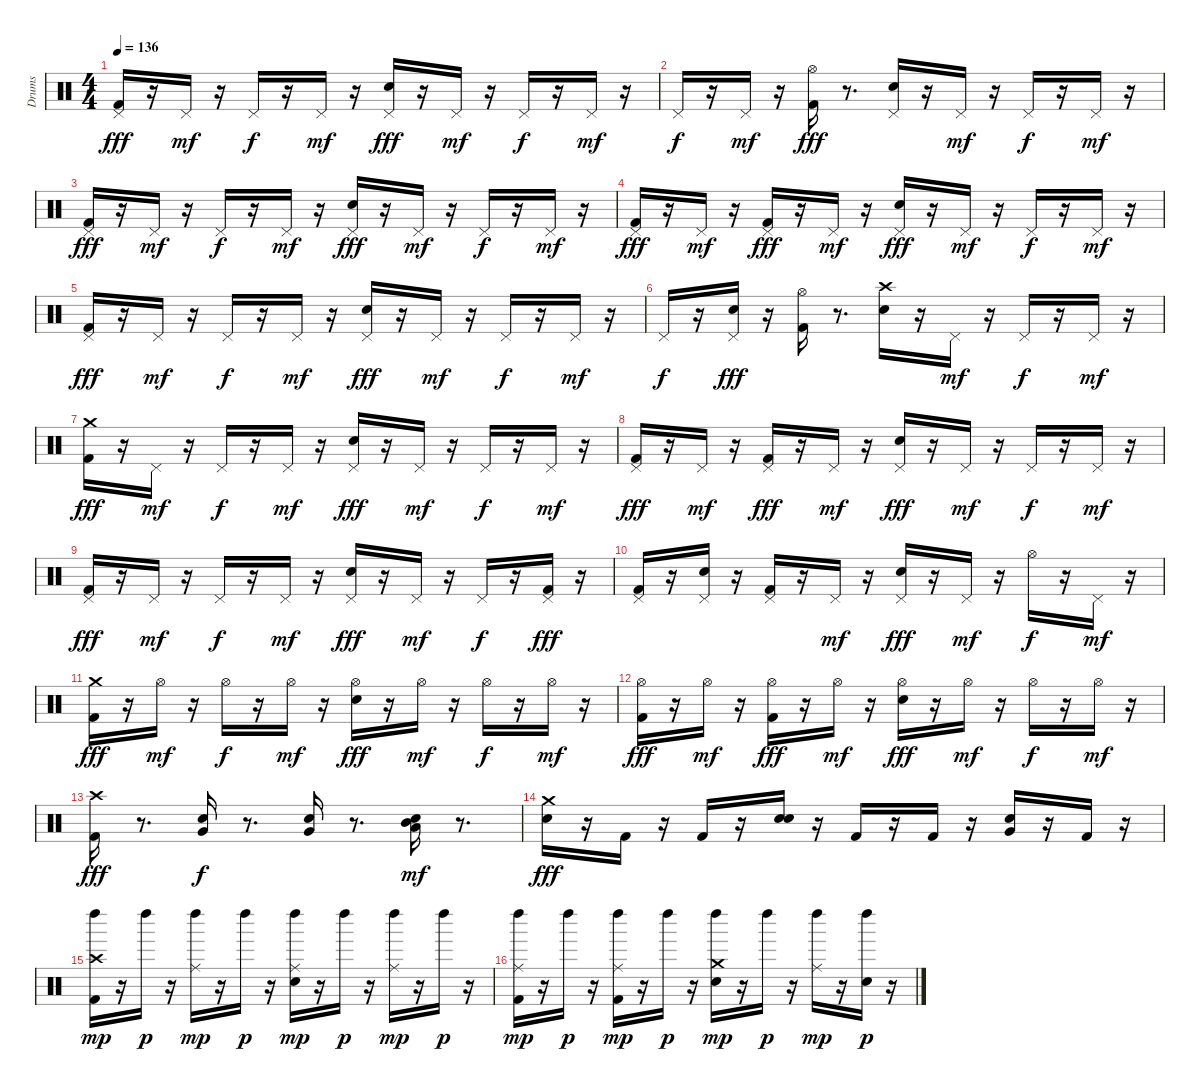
\track ("Drums" "Drums") {instrument percussion}
\staff {score}
\articulation defaults
\ts (4 4)
\tempo 136
\clef neutral
\ks c
("Kick (hit) 2" "Pedal Hi-Hat (hit)").16{dy fff} r.16 "Pedal Hi-Hat (hit)".16{dy mf} r.16 "Pedal Hi-Hat (hit)".16{dy f} r.16 "Pedal Hi-Hat (hit)".16{dy mf} r.16 ("Electric Snare (hit)" "Pedal Hi-Hat (hit)").16{dy fff} r.16 "Pedal Hi-Hat (hit)".16{dy mf} r.16 "Pedal Hi-Hat (hit)".16{dy f} r.16 "Pedal Hi-Hat (hit)".16{dy mf} r.16 |
"Pedal Hi-Hat (hit)".16{dy f} r.16 "Pedal Hi-Hat (hit)".16{dy mf} r.16 ("Kick (hit) 2" "Hi-Hat (open)").16{dy fff} r.8{d} ("Electric Snare (hit)" "Pedal Hi-Hat (hit)").16 r.16 "Pedal Hi-Hat (hit)".16{dy mf} r.16 "Pedal Hi-Hat (hit)".16{dy f} r.16 "Pedal Hi-Hat (hit)".16{dy mf} r.16 |
("Kick (hit) 2" "Pedal Hi-Hat (hit)").16{dy fff} r.16 "Pedal Hi-Hat (hit)".16{dy mf} r.16 "Pedal Hi-Hat (hit)".16{dy f} r.16 "Pedal Hi-Hat (hit)".16{dy mf} r.16 ("Electric Snare (hit)" "Pedal Hi-Hat (hit)").16{dy fff} r.16 "Pedal Hi-Hat (hit)".16{dy mf} r.16 "Pedal Hi-Hat (hit)".16{dy f} r.16 "Pedal Hi-Hat (hit)".16{dy mf} r.16 |
("Kick (hit) 2" "Pedal Hi-Hat (hit)").16{dy fff} r.16 "Pedal Hi-Hat (hit)".16{dy mf} r.16 ("Pedal Hi-Hat (hit)" "Kick (hit) 2").16{dy fff} r.16 "Pedal Hi-Hat (hit)".16{dy mf} r.16 ("Electric Snare (hit)" "Pedal Hi-Hat (hit)").16{dy fff} r.16 "Pedal Hi-Hat (hit)".16{dy mf} r.16 "Pedal Hi-Hat (hit)".16{dy f} r.16 "Pedal Hi-Hat (hit)".16{dy mf} r.16 |
("Kick (hit) 2" "Pedal Hi-Hat (hit)").16{dy fff} r.16 "Pedal Hi-Hat (hit)".16{dy mf} r.16 "Pedal Hi-Hat (hit)".16{dy f} r.16 "Pedal Hi-Hat (hit)".16{dy mf} r.16 ("Electric Snare (hit)" "Pedal Hi-Hat (hit)").16{dy fff} r.16 "Pedal Hi-Hat (hit)".16{dy mf} r.16 "Pedal Hi-Hat (hit)".16{dy f} r.16 "Pedal Hi-Hat (hit)".16{dy mf} r.16 |
"Pedal Hi-Hat (hit)".16{dy f} r.16 ("Pedal Hi-Hat (hit)" "Electric Snare (hit)").16{dy fff} r.16 ("Kick (hit) 2" "Hi-Hat (open)").16 r.8{d} ("Electric Snare (hit)" "Crash high (hit)").16 r.16 "Pedal Hi-Hat (hit)".16{dy mf} r.16 "Pedal Hi-Hat (hit)".16{dy f} r.16 "Pedal Hi-Hat (hit)".16{dy mf} r.16 |
("Kick (hit) 2" "Crash medium (hit)").16{dy fff} r.16 "Pedal Hi-Hat (hit)".16{dy mf} r.16 "Pedal Hi-Hat (hit)".16{dy f} r.16 "Pedal Hi-Hat (hit)".16{dy mf} r.16 ("Electric Snare (hit)" "Pedal Hi-Hat (hit)").16{dy fff} r.16 "Pedal Hi-Hat (hit)".16{dy mf} r.16 "Pedal Hi-Hat (hit)".16{dy f} r.16 "Pedal Hi-Hat (hit)".16{dy mf} r.16 |
("Kick (hit) 2" "Pedal Hi-Hat (hit)").16{dy fff} r.16 "Pedal Hi-Hat (hit)".16{dy mf} r.16 ("Pedal Hi-Hat (hit)" "Kick (hit) 2").16{dy fff} r.16 "Pedal Hi-Hat (hit)".16{dy mf} r.16 ("Electric Snare (hit)" "Pedal Hi-Hat (hit)").16{dy fff} r.16 "Pedal Hi-Hat (hit)".16{dy mf} r.16 "Pedal Hi-Hat (hit)".16{dy f} r.16 "Pedal Hi-Hat (hit)".16{dy mf} r.16 |
("Kick (hit) 2" "Pedal Hi-Hat (hit)").16{dy fff} r.16 "Pedal Hi-Hat (hit)".16{dy mf} r.16 "Pedal Hi-Hat (hit)".16{dy f} r.16 "Pedal Hi-Hat (hit)".16{dy mf} r.16 ("Electric Snare (hit)" "Pedal Hi-Hat (hit)").16{dy fff} r.16 "Pedal Hi-Hat (hit)".16{dy mf} r.16 "Pedal Hi-Hat (hit)".16{dy f} r.16 ("Pedal Hi-Hat (hit)" "Kick (hit) 2").16{dy fff} r.16 |
("Pedal Hi-Hat (hit)" "Kick (hit) 2").16 r.16 ("Pedal Hi-Hat (hit)" "Electric Snare (hit)").16 r.16 ("Pedal Hi-Hat (hit)" "Kick (hit) 2").16 r.16 "Pedal Hi-Hat (hit)".16{dy mf} r.16 ("Pedal Hi-Hat (hit)" "Electric Snare (hit)").16{dy fff} r.16 "Pedal Hi-Hat (hit)".16{dy mf} r.16 "Hi-Hat (open)".16{dy f} r.16 "Pedal Hi-Hat (hit)".16{dy mf} r.16 |
("Kick (hit) 2" "Crash medium (hit)").16{dy fff} r.16 "Hi-Hat (open)".16{dy mf} r.16 "Hi-Hat (open)".16{dy f} r.16 "Hi-Hat (open)".16{dy mf} r.16 ("Electric Snare (hit)" "Hi-Hat (open)").16{dy fff} r.16 "Hi-Hat (open)".16{dy mf} r.16 "Hi-Hat (open)".16{dy f} r.16 "Hi-Hat (open)".16{dy mf} r.16 |
("Kick (hit) 2" "Hi-Hat (open)").16{dy fff} r.16 "Hi-Hat (open)".16{dy mf} r.16 ("Kick (hit) 2" "Hi-Hat (open)").16{dy fff} r.16 "Hi-Hat (open)".16{dy mf} r.16 ("Electric Snare (hit)" "Hi-Hat (open)").16{dy fff} r.16 "Hi-Hat (open)".16{dy mf} r.16 "Hi-Hat (open)".16{dy f} r.16 "Hi-Hat (open)".16{dy mf} r.16 |
("Kick (hit) 2" "Crash high (hit)").16{dy fff} r.8{d} ("Very Low Tom (hit)" "Electric Snare (hit)").16{dy f} r.8{d} ("Very Low Tom (hit)" "Electric Snare (hit)").16 r.8{d} ("Mid Tom (hit)" "Low Floor Tom (hit)" "Electric Snare (hit)").16{dy mf} r.8{d} |
("Electric Snare (hit)" "Crash medium (hit)").16{dy fff} r.16 "Kick (hit) 2".16 r.16 "Kick (hit) 2".16 r.16 ("Electric Snare (hit)" "Electric Snare (hit)").16 r.16 "Kick (hit) 2".16 r.16 "Kick (hit) 2".16 r.16 ("Electric Snare (hit)" "Very Low Tom (hit)").16 r.16 "Kick (hit) 2".16 r.16 |
("Kick (hit) 2" "Crash high (hit)" "Left Maraca (hit)").16{dy mp} r.16 "Left Maraca (hit)".16{dy p} r.16 ("Ride (middle)" "Left Maraca (hit)").16{dy mp} r.16 "Left Maraca (hit)".16{dy p} r.16 ("Electric Snare (hit)" "Ride (middle)" "Left Maraca (hit)").16{dy mp} r.16 "Left Maraca (hit)".16{dy p} r.16 ("Ride (middle)" "Left Maraca (hit)").16{dy mp} r.16 "Left Maraca (hit)".16{dy p} r.16 |
("Kick (hit) 2" "Ride (middle)" "Left Maraca (hit)").16{dy mp} r.16 "Left Maraca (hit)".16{dy p} r.16 ("Kick (hit) 2" "Ride (middle)" "Left Maraca (hit)").16{dy mp} r.16 "Left Maraca (hit)".16{dy p} r.16 ("Electric Snare (hit)" "Crash medium (hit)" "Left Maraca (hit)").16{dy mp} r.16 "Left Maraca (hit)".16{dy p} r.16 ("Ride (middle)" "Left Maraca (hit)").16{dy mp} r.16 ("Electric Snare (hit)" "Left Maraca (hit)").16{dy p} r.16
